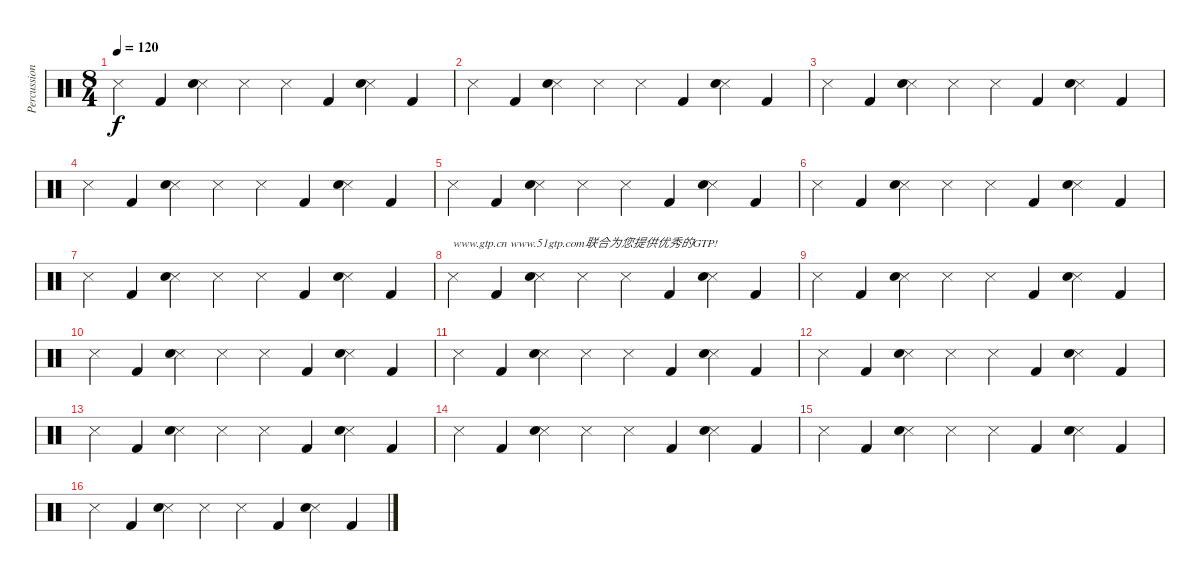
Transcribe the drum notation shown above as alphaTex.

\track ("Percussion" "Percussion") {instrument percussion}
\staff {score}
\articulation defaults
\ts (8 4)
\tempo 120
\clef neutral
\ks c "Metronome (hit)".4{dy f} "Kick (hit) 2".4
("Metronome (hit)" "Snare (hit) 2").4 "Metronome (hit)".4 "Metronome (hit)".4 "Kick (hit) 2".4 ("Metronome (hit)" "Snare (hit) 2").4 "Kick (hit) 2".4 |
"Metronome (hit)".4 "Kick (hit) 2".4 ("Metronome (hit)" "Snare (hit) 2").4 "Metronome (hit)".4 "Metronome (hit)".4 "Kick (hit) 2".4 ("Metronome (hit)" "Snare (hit) 2").4 "Kick (hit) 2".4 |
"Metronome (hit)".4 "Kick (hit) 2".4 ("Metronome (hit)" "Snare (hit) 2").4 "Metronome (hit)".4 "Metronome (hit)".4 "Kick (hit) 2".4 ("Metronome (hit)" "Snare (hit) 2").4 "Kick (hit) 2".4 |
"Metronome (hit)".4 "Kick (hit) 2".4 ("Metronome (hit)" "Snare (hit) 2").4 "Metronome (hit)".4 "Metronome (hit)".4 "Kick (hit) 2".4 ("Metronome (hit)" "Snare (hit) 2").4 "Kick (hit) 2".4 |
"Metronome (hit)".4 "Kick (hit) 2".4 ("Metronome (hit)" "Snare (hit) 2").4 "Metronome (hit)".4 "Metronome (hit)".4 "Kick (hit) 2".4 ("Metronome (hit)" "Snare (hit) 2").4 "Kick (hit) 2".4 |
"Metronome (hit)".4 "Kick (hit) 2".4 ("Metronome (hit)" "Snare (hit) 2").4 "Metronome (hit)".4 "Metronome (hit)".4 "Kick (hit) 2".4 ("Metronome (hit)" "Snare (hit) 2").4 "Kick (hit) 2".4 |
"Metronome (hit)".4 "Kick (hit) 2".4 ("Metronome (hit)" "Snare (hit) 2").4 "Metronome (hit)".4 "Metronome (hit)".4 "Kick (hit) 2".4 ("Metronome (hit)" "Snare (hit) 2").4 "Kick (hit) 2".4 |
"Metronome (hit)".4{txt "www.gtp.cn www.51gtp.com联合为您提供优秀的GTP!"} "Kick (hit) 2".4 ("Metronome (hit)" "Snare (hit) 2").4 "Metronome (hit)".4 "Metronome (hit)".4 "Kick (hit) 2".4 ("Metronome (hit)" "Snare (hit) 2").4 "Kick (hit) 2".4 |
"Metronome (hit)".4 "Kick (hit) 2".4 ("Metronome (hit)" "Snare (hit) 2").4 "Metronome (hit)".4 "Metronome (hit)".4 "Kick (hit) 2".4 ("Metronome (hit)" "Snare (hit) 2").4 "Kick (hit) 2".4 |
"Metronome (hit)".4 "Kick (hit) 2".4 ("Metronome (hit)" "Snare (hit) 2").4 "Metronome (hit)".4 "Metronome (hit)".4 "Kick (hit) 2".4 ("Metronome (hit)" "Snare (hit) 2").4 "Kick (hit) 2".4 |
"Metronome (hit)".4 "Kick (hit) 2".4 ("Metronome (hit)" "Snare (hit) 2").4 "Metronome (hit)".4 "Metronome (hit)".4 "Kick (hit) 2".4 ("Metronome (hit)" "Snare (hit) 2").4 "Kick (hit) 2".4 |
"Metronome (hit)".4 "Kick (hit) 2".4 ("Metronome (hit)" "Snare (hit) 2").4 "Metronome (hit)".4 "Metronome (hit)".4 "Kick (hit) 2".4 ("Metronome (hit)" "Snare (hit) 2").4 "Kick (hit) 2".4 |
"Metronome (hit)".4 "Kick (hit) 2".4 ("Metronome (hit)" "Snare (hit) 2").4 "Metronome (hit)".4 "Metronome (hit)".4 "Kick (hit) 2".4 ("Metronome (hit)" "Snare (hit) 2").4 "Kick (hit) 2".4 |
"Metronome (hit)".4 "Kick (hit) 2".4 ("Metronome (hit)" "Snare (hit) 2").4 "Metronome (hit)".4 "Metronome (hit)".4 "Kick (hit) 2".4 ("Metronome (hit)" "Snare (hit) 2").4 "Kick (hit) 2".4 |
"Metronome (hit)".4 "Kick (hit) 2".4 ("Metronome (hit)" "Snare (hit) 2").4 "Metronome (hit)".4 "Metronome (hit)".4 "Kick (hit) 2".4 ("Metronome (hit)" "Snare (hit) 2").4 "Kick (hit) 2".4 |
"Metronome (hit)".4 "Kick (hit) 2".4 ("Metronome (hit)" "Snare (hit) 2").4 "Metronome (hit)".4 "Metronome (hit)".4 "Kick (hit) 2".4 ("Metronome (hit)" "Snare (hit) 2").4 "Kick (hit) 2".4
